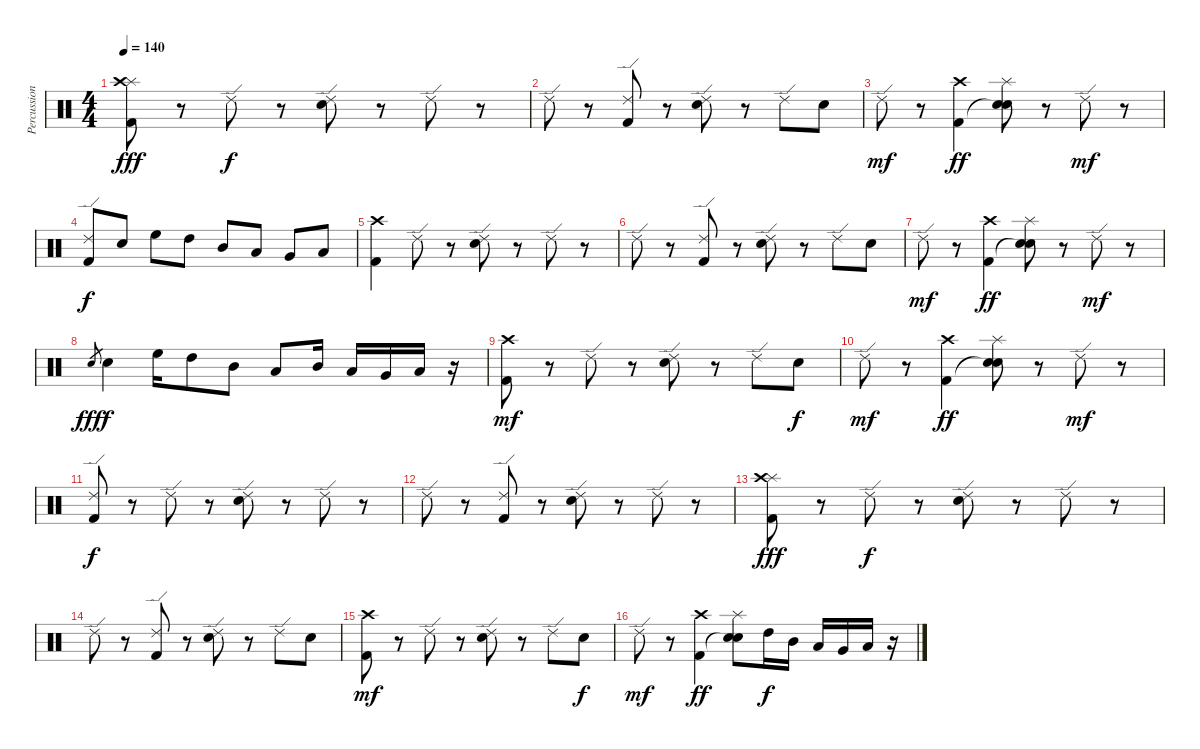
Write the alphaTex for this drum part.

\track ("Percussion" "Percussion") {instrument percussion}
\staff {score}
\articulation defaults
\ts (4 4)
\tempo 140
\clef neutral
\ks c
("Splash (hit)" "Crash high (hit)" "Kick (hit) 2").8{dy fff} r.8 "Ride (edge) 2".8{dy f} r.8 ("Ride (edge) 2" "Electric Snare (hit)").8 r.8 "Ride (edge) 2".8 r.8 |
"Ride (edge) 2".8 r.8 ("Ride (edge) 2" "Kick (hit) 2").8 r.8 ("Ride (edge) 2" "Electric Snare (hit)").8 r.8 "Ride (edge) 2".8 "Electric Snare (hit)".8 |
"Ride (edge) 2".8{dy mf} r.8 ("Crash high (hit)" "Kick (hit) 2").4{dy ff} ("Splash (hit)" "Electric Snare (hit)"{t} "Electric Snare (hit)").8 r.8 "Ride (edge) 2".8{dy mf} r.8 |
("Ride (edge) 2" "Kick (hit) 2").8{dy f} "Electric Snare (hit)".8 "High Floor Tom (hit)".8 "High Tom (hit)".8 "Mid Tom (hit)".8 "Low Tom (hit)".8 "Very Low Tom (hit)".8 "Low Floor Tom (hit)".8 |
("Crash high (hit)" "Kick (hit) 2").4 "Ride (edge) 2".8 r.8 ("Ride (edge) 2" "Electric Snare (hit)").8 r.8 "Ride (edge) 2".8 r.8 |
"Ride (edge) 2".8 r.8 ("Ride (edge) 2" "Kick (hit) 2").8 r.8 ("Ride (edge) 2" "Electric Snare (hit)").8 r.8 "Ride (edge) 2".8 "Electric Snare (hit)".8 |
"Ride (edge) 2".8{dy mf} r.8 ("Crash high (hit)" "Kick (hit) 2").4{dy ff} ("Splash (hit)" "Electric Snare (hit)"{t} "Electric Snare (hit)").8 r.8 "Ride (edge) 2".8{dy mf} r.8 |
"Electric Snare (hit)".8{gr dy fff} "Electric Snare (hit)".4{dy f} "High Floor Tom (hit)".16 "High Tom (hit)".8 "Mid Tom (hit)".8 "Low Tom (hit)".8 "Mid Tom (hit)".16 "Low Tom (hit)".16 "Very Low Tom (hit)".16 "Low Floor Tom (hit)".16 r.16 |
("Crash high (hit)" "Kick (hit) 2").8{dy mf} r.8 "Ride (edge) 2".8 r.8 ("Ride (edge) 2" "Electric Snare (hit)").8 r.8 "Ride (edge) 2".8 "Electric Snare (hit)".8{dy f} |
"Ride (edge) 2".8{dy mf} r.8 ("Crash high (hit)" "Kick (hit) 2").4{dy ff} ("Splash (hit)" "Electric Snare (hit)"{t} "Electric Snare (hit)").8 r.8 "Ride (edge) 2".8{dy mf} r.8 |
("Ride (edge) 2" "Kick (hit) 2").8{dy f} r.8 "Ride (edge) 2".8 r.8 ("Ride (edge) 2" "Electric Snare (hit)").8 r.8 "Ride (edge) 2".8 r.8 |
"Ride (edge) 2".8 r.8 ("Ride (edge) 2" "Kick (hit) 2").8 r.8 ("Ride (edge) 2" "Electric Snare (hit)").8 r.8 "Ride (edge) 2".8 r.8 |
("Splash (hit)" "Crash high (hit)" "Kick (hit) 2").8{dy fff} r.8 "Ride (edge) 2".8{dy f} r.8 ("Ride (edge) 2" "Electric Snare (hit)").8 r.8 "Ride (edge) 2".8 r.8 |
"Ride (edge) 2".8 r.8 ("Ride (edge) 2" "Kick (hit) 2").8 r.8 ("Ride (edge) 2" "Electric Snare (hit)").8 r.8 "Ride (edge) 2".8 "Electric Snare (hit)".8 |
("Crash high (hit)" "Kick (hit) 2").8{dy mf} r.8 "Ride (edge) 2".8 r.8 ("Ride (edge) 2" "Electric Snare (hit)").8 r.8 "Ride (edge) 2".8 "Electric Snare (hit)".8{dy f} |
"Ride (edge) 2".8{dy mf} r.8 ("Crash high (hit)" "Kick (hit) 2").4{dy ff} ("Splash (hit)" "Electric Snare (hit)"{t} "Electric Snare (hit)").8 "High Tom (hit)".16{dy f} "Mid Tom (hit)".16 "Low Tom (hit)".16 "Very Low Tom (hit)".16 "Low Floor Tom (hit)".16 r.16
